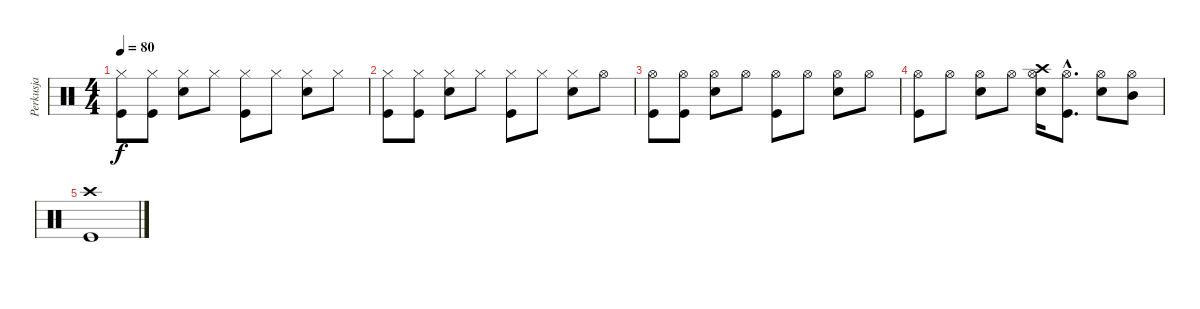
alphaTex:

\track ("Perkusja" "Perkusja") {instrument percussion}
\staff {score}
\articulation defaults
\ts (4 4)
\tempo 80
\clef neutral
\ks c
("Hi-Hat (closed)" "Kick (hit)").8{dy f} ("Hi-Hat (closed)" "Kick (hit)").8 ("Hi-Hat (closed)" "Metronome (bell)").8 "Hi-Hat (closed)".8 ("Hi-Hat (closed)" "Kick (hit)").8 "Hi-Hat (closed)".8 ("Hi-Hat (closed)" "Metronome (bell)").8 "Hi-Hat (closed)".8 |
("Hi-Hat (closed)" "Kick (hit)").8 ("Hi-Hat (closed)" "Kick (hit)").8 ("Hi-Hat (closed)" "Metronome (bell)").8 "Hi-Hat (closed)".8 ("Hi-Hat (closed)" "Kick (hit)").8 "Hi-Hat (closed)".8 ("Hi-Hat (closed)" "Metronome (bell)").8 "Hi-Hat (open)".8 |
("Hi-Hat (open)" "Kick (hit)").8 ("Hi-Hat (open)" "Kick (hit)").8 ("Hi-Hat (open)" "Metronome (bell)").8 "Hi-Hat (open)".8 ("Hi-Hat (open)" "Kick (hit)").8 "Hi-Hat (open)".8 ("Hi-Hat (open)" "Metronome (bell)").8 "Hi-Hat (open)".8 |
("Hi-Hat (open)" "Kick (hit)").8 "Hi-Hat (open)".8 ("Hi-Hat (open)" "Metronome (bell)").8 "Hi-Hat (open)".8 ("Hi-Hat (open)" "Crash high (hit)" "Metronome (bell)").16 ("Hi-Hat (open)"{hac} "Kick (hit)"{hac}).8{d} ("Hi-Hat (open)" "Metronome (bell)").8 ("Hi-Hat (open)" "Mid Tom (hit)").8 |
("Crash high (hit)" "Kick (hit)").1
